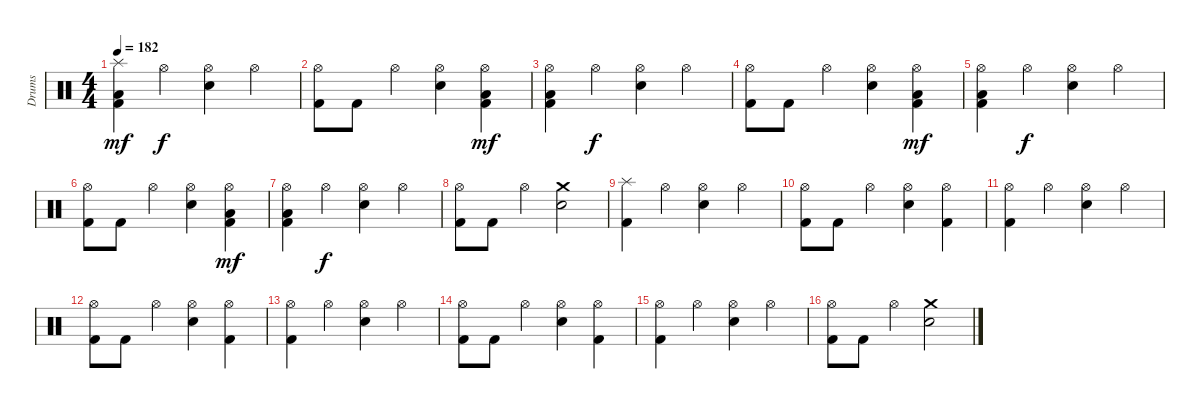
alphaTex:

\track ("Drums" "Drums") {instrument percussion}
\staff {score}
\articulation defaults
\ts (4 4)
\tempo 182
\clef neutral
\ks c
("Splash (hit)" "Low Floor Tom (hit)" "Kick (hit) 2").4{dy mf} "Hi-Hat (open)".4{dy f} ("Hi-Hat (open)" "Snare (hit) 2").4 "Hi-Hat (open)".4 |
("Hi-Hat (open)" "Kick (hit) 2").8 "Kick (hit) 2".8 "Hi-Hat (open)".4 ("Hi-Hat (open)" "Snare (hit) 2").4 ("Hi-Hat (open)" "Low Floor Tom (hit)" "Kick (hit) 2").4{dy mf} |
("Hi-Hat (open)" "Low Floor Tom (hit)" "Kick (hit) 2").4 "Hi-Hat (open)".4{dy f} ("Hi-Hat (open)" "Snare (hit) 2").4 "Hi-Hat (open)".4 |
("Hi-Hat (open)" "Kick (hit) 2").8 "Kick (hit) 2".8 "Hi-Hat (open)".4 ("Hi-Hat (open)" "Snare (hit) 2").4 ("Hi-Hat (open)" "Low Floor Tom (hit)" "Kick (hit) 2").4{dy mf} |
("Hi-Hat (open)" "Low Floor Tom (hit)" "Kick (hit) 2").4 "Hi-Hat (open)".4{dy f} ("Hi-Hat (open)" "Snare (hit) 2").4 "Hi-Hat (open)".4 |
("Hi-Hat (open)" "Kick (hit) 2").8 "Kick (hit) 2".8 "Hi-Hat (open)".4 ("Hi-Hat (open)" "Snare (hit) 2").4 ("Hi-Hat (open)" "Low Floor Tom (hit)" "Kick (hit) 2").4{dy mf} |
("Hi-Hat (open)" "Low Floor Tom (hit)" "Kick (hit) 2").4 "Hi-Hat (open)".4{dy f} ("Hi-Hat (open)" "Snare (hit) 2").4 "Hi-Hat (open)".4 |
("Hi-Hat (open)" "Kick (hit) 2").8 "Kick (hit) 2".8 "Hi-Hat (open)".4 ("Crash medium (hit)" "Snare (hit) 2").2 |
("Splash (hit)" "Kick (hit) 2").4 "Hi-Hat (open)".4 ("Hi-Hat (open)" "Snare (hit) 2").4 "Hi-Hat (open)".4 |
("Hi-Hat (open)" "Kick (hit) 2").8 "Kick (hit) 2".8 "Hi-Hat (open)".4 ("Hi-Hat (open)" "Snare (hit) 2").4 ("Hi-Hat (open)" "Kick (hit) 2").4 |
("Hi-Hat (open)" "Kick (hit) 2").4 "Hi-Hat (open)".4 ("Hi-Hat (open)" "Snare (hit) 2").4 "Hi-Hat (open)".4 |
("Hi-Hat (open)" "Kick (hit) 2").8 "Kick (hit) 2".8 "Hi-Hat (open)".4 ("Hi-Hat (open)" "Snare (hit) 2").4 ("Hi-Hat (open)" "Kick (hit) 2").4 |
("Hi-Hat (open)" "Kick (hit) 2").4 "Hi-Hat (open)".4 ("Hi-Hat (open)" "Snare (hit) 2").4 "Hi-Hat (open)".4 |
("Hi-Hat (open)" "Kick (hit) 2").8 "Kick (hit) 2".8 "Hi-Hat (open)".4 ("Hi-Hat (open)" "Snare (hit) 2").4 ("Hi-Hat (open)" "Kick (hit) 2").4 |
("Hi-Hat (open)" "Kick (hit) 2").4 "Hi-Hat (open)".4 ("Hi-Hat (open)" "Snare (hit) 2").4 "Hi-Hat (open)".4 |
("Hi-Hat (open)" "Kick (hit) 2").8 "Kick (hit) 2".8 "Hi-Hat (open)".4 ("Crash medium (hit)" "Snare (hit) 2").2
